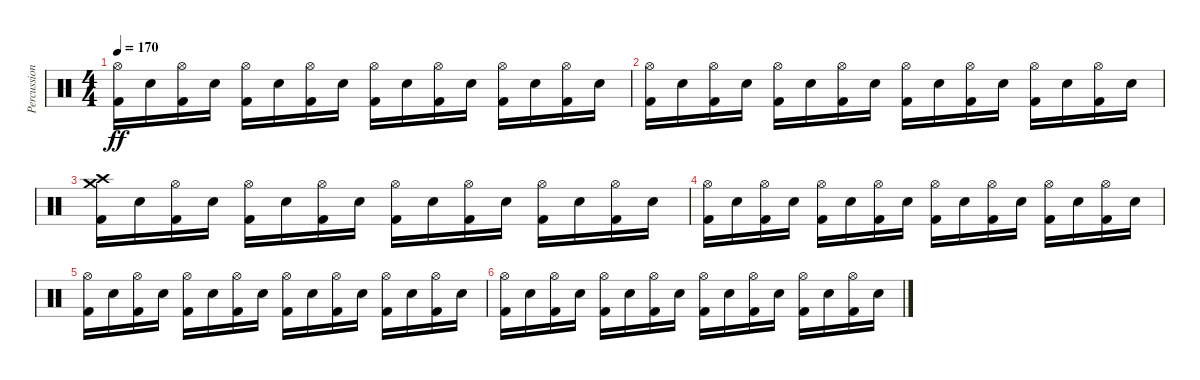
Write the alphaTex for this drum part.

\track ("Percussion" "Percussion") {instrument percussion}
\staff {score}
\articulation defaults
\ts (4 4)
\tempo 170
\clef neutral
\ks c
("Kick (hit) 2" "Hi-Hat (open)").16{dy ff} "Electric Snare (hit)".16 ("Kick (hit) 2" "Hi-Hat (open)").16 "Electric Snare (hit)".16 ("Kick (hit) 2" "Hi-Hat (open)").16 "Electric Snare (hit)".16 ("Kick (hit) 2" "Hi-Hat (open)").16 "Electric Snare (hit)".16 ("Kick (hit) 2" "Hi-Hat (open)").16 "Electric Snare (hit)".16 ("Kick (hit) 2" "Hi-Hat (open)").16 "Electric Snare (hit)".16 ("Kick (hit) 2" "Hi-Hat (open)").16 "Electric Snare (hit)".16 ("Kick (hit) 2" "Hi-Hat (open)").16 "Electric Snare (hit)".16 |
("Kick (hit) 2" "Hi-Hat (open)").16 "Electric Snare (hit)".16 ("Kick (hit) 2" "Hi-Hat (open)").16 "Electric Snare (hit)".16 ("Kick (hit) 2" "Hi-Hat (open)").16 "Electric Snare (hit)".16 ("Kick (hit) 2" "Hi-Hat (open)").16 "Electric Snare (hit)".16 ("Kick (hit) 2" "Hi-Hat (open)").16 "Electric Snare (hit)".16 ("Kick (hit) 2" "Hi-Hat (open)").16 "Electric Snare (hit)".16 ("Kick (hit) 2" "Hi-Hat (open)").16 "Electric Snare (hit)".16 ("Kick (hit) 2" "Hi-Hat (open)").16 "Electric Snare (hit)".16 |
("Kick (hit) 2" "Crash high (hit)" "Crash medium (hit)").16 "Electric Snare (hit)".16 ("Kick (hit) 2" "Hi-Hat (open)").16 "Electric Snare (hit)".16 ("Kick (hit) 2" "Hi-Hat (open)").16 "Electric Snare (hit)".16 ("Kick (hit) 2" "Hi-Hat (open)").16 "Electric Snare (hit)".16 ("Kick (hit) 2" "Hi-Hat (open)").16 "Electric Snare (hit)".16 ("Kick (hit) 2" "Hi-Hat (open)").16 "Electric Snare (hit)".16 ("Kick (hit) 2" "Hi-Hat (open)").16 "Electric Snare (hit)".16 ("Kick (hit) 2" "Hi-Hat (open)").16 "Electric Snare (hit)".16 |
("Kick (hit) 2" "Hi-Hat (open)").16 "Electric Snare (hit)".16 ("Kick (hit) 2" "Hi-Hat (open)").16 "Electric Snare (hit)".16 ("Kick (hit) 2" "Hi-Hat (open)").16 "Electric Snare (hit)".16 ("Kick (hit) 2" "Hi-Hat (open)").16 "Electric Snare (hit)".16 ("Kick (hit) 2" "Hi-Hat (open)").16 "Electric Snare (hit)".16 ("Kick (hit) 2" "Hi-Hat (open)").16 "Electric Snare (hit)".16 ("Kick (hit) 2" "Hi-Hat (open)").16 "Electric Snare (hit)".16 ("Kick (hit) 2" "Hi-Hat (open)").16 "Electric Snare (hit)".16 |
("Kick (hit) 2" "Hi-Hat (open)").16 "Electric Snare (hit)".16 ("Kick (hit) 2" "Hi-Hat (open)").16 "Electric Snare (hit)".16 ("Kick (hit) 2" "Hi-Hat (open)").16 "Electric Snare (hit)".16 ("Kick (hit) 2" "Hi-Hat (open)").16 "Electric Snare (hit)".16 ("Kick (hit) 2" "Hi-Hat (open)").16 "Electric Snare (hit)".16 ("Kick (hit) 2" "Hi-Hat (open)").16 "Electric Snare (hit)".16 ("Kick (hit) 2" "Hi-Hat (open)").16 "Electric Snare (hit)".16 ("Kick (hit) 2" "Hi-Hat (open)").16 "Electric Snare (hit)".16 |
("Kick (hit) 2" "Hi-Hat (open)").16 "Electric Snare (hit)".16 ("Kick (hit) 2" "Hi-Hat (open)").16 "Electric Snare (hit)".16 ("Kick (hit) 2" "Hi-Hat (open)").16 "Electric Snare (hit)".16 ("Kick (hit) 2" "Hi-Hat (open)").16 "Electric Snare (hit)".16 ("Kick (hit) 2" "Hi-Hat (open)").16 "Electric Snare (hit)".16 ("Kick (hit) 2" "Hi-Hat (open)").16 "Electric Snare (hit)".16 ("Kick (hit) 2" "Hi-Hat (open)").16 "Electric Snare (hit)".16 ("Kick (hit) 2" "Hi-Hat (open)").16 "Electric Snare (hit)".16
